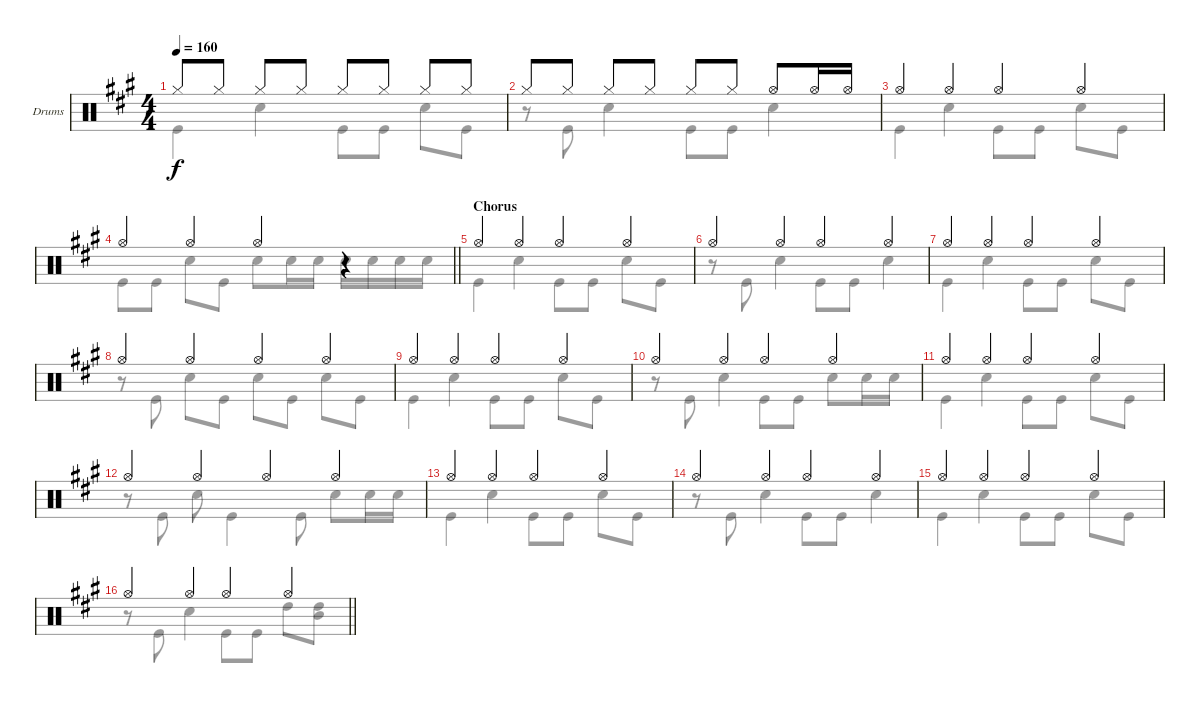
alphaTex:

\bracketExtendMode groupsimilarinstruments
\firstSystemTrackNameOrientation horizontal
\otherSystemsTrackNameOrientation horizontal
\track ("Drumkit" "Drums") {instrument percussion}
\staff {score}
\articulation defaults
\voice
\ts (4 4)
\tempo 160
\clef neutral
\ks a "Hi-Hat (closed)".8{dy f} "Hi-Hat (closed)".8 "Hi-Hat (closed)".8 "Hi-Hat (closed)".8 "Hi-Hat (closed)".8 "Hi-Hat (closed)".8 "Hi-Hat (closed)".8 "Hi-Hat (closed)".8
|
"Hi-Hat (closed)".8 "Hi-Hat (closed)".8 "Hi-Hat (closed)".8 "Hi-Hat (closed)".8 "Hi-Hat (closed)".8 "Hi-Hat (closed)".8 "Hi-Hat (open)".8 "Hi-Hat (open)".16 "Hi-Hat (open)".16 |
"Hi-Hat (open)".4 "Hi-Hat (open)".4 "Hi-Hat (open)".4 "Hi-Hat (open)".4 |
\barLineRight lightlight "Hi-Hat (open)".4 "Hi-Hat (open)".4 "Hi-Hat (open)".4
r.4 |
\section ("" "Chorus")
"Hi-Hat (open)".4 "Hi-Hat (open)".4 "Hi-Hat (open)".4 "Hi-Hat (open)".4 |
"Hi-Hat (open)".4 "Hi-Hat (open)".4 "Hi-Hat (open)".4 "Hi-Hat (open)".4 |
"Hi-Hat (open)".4 "Hi-Hat (open)".4 "Hi-Hat (open)".4 "Hi-Hat (open)".4 |
"Hi-Hat (open)".4 "Hi-Hat (open)".4 "Hi-Hat (open)".4 "Hi-Hat (open)".4 |
"Hi-Hat (open)".4 "Hi-Hat (open)".4 "Hi-Hat (open)".4 "Hi-Hat (open)".4 |
"Hi-Hat (open)".4 "Hi-Hat (open)".4 "Hi-Hat (open)".4 "Hi-Hat (open)".4 |
"Hi-Hat (open)".4 "Hi-Hat (open)".4 "Hi-Hat (open)".4 "Hi-Hat (open)".4 |
"Hi-Hat (open)".4 "Hi-Hat (open)".4 "Hi-Hat (open)".4 "Hi-Hat (open)".4 |
"Hi-Hat (open)".4 "Hi-Hat (open)".4 "Hi-Hat (open)".4 "Hi-Hat (open)".4 |
"Hi-Hat (open)".4 "Hi-Hat (open)".4 "Hi-Hat (open)".4 "Hi-Hat (open)".4 |
"Hi-Hat (open)".4 "Hi-Hat (open)".4 "Hi-Hat (open)".4 "Hi-Hat (open)".4 |
\barLineRight lightlight "Hi-Hat (open)".4 "Hi-Hat (open)".4 "Hi-Hat (open)".4 "Hi-Hat (open)".4
\voice
\clef neutral
\ottava regular
\simile none
\ks a "Kick (hit)".4{dy f} "Snare (hit) 2".4 "Kick (hit)".8 "Kick (hit)".8 "Snare (hit) 2".8 "Kick (hit)".8
|
r.8 "Kick (hit)".8 "Snare (hit) 2".4 "Kick (hit)".8 "Kick (hit)".8 "Snare (hit) 2".4 |
"Kick (hit)".4 "Snare (hit) 2".4 "Kick (hit)".8 "Kick (hit)".8 "Snare (hit) 2".8 "Kick (hit)".8 |
\barLineRight lightlight "Kick (hit)".8 "Kick (hit)".8 "Snare (hit) 2".8 "Kick (hit)".8 "Snare (hit) 2".8 "Snare (hit) 2".16 "Snare (hit) 2".16 "Snare (hit) 2".16 "Snare (hit) 2".16 "Snare (hit) 2".16 "Snare (hit) 2".16
|
"Kick (hit)".4 "Snare (hit) 2".4 "Kick (hit)".8 "Kick (hit)".8 "Snare (hit) 2".8 "Kick (hit)".8 |
r.8 "Kick (hit)".8 "Snare (hit) 2".4 "Kick (hit)".8 "Kick (hit)".8 "Snare (hit) 2".4 |
"Kick (hit)".4 "Snare (hit) 2".4 "Kick (hit)".8 "Kick (hit)".8 "Snare (hit) 2".8 "Kick (hit)".8 |
r.8 "Kick (hit)".8 "Snare (hit) 2".8 "Kick (hit)".8 "Snare (hit) 2".8 "Kick (hit)".8 "Snare (hit) 2".8 "Kick (hit)".8 |
"Kick (hit)".4 "Snare (hit) 2".4 "Kick (hit)".8 "Kick (hit)".8 "Snare (hit) 2".8 "Kick (hit)".8 |
r.8 "Kick (hit)".8 "Snare (hit) 2".4 "Kick (hit)".8 "Kick (hit)".8 "Snare (hit) 2".8 "Snare (hit) 2".16 "Snare (hit) 2".16 |
"Kick (hit)".4 "Snare (hit) 2".4 "Kick (hit)".8 "Kick (hit)".8 "Snare (hit) 2".8 "Kick (hit)".8 |
r.8 "Kick (hit)".8 "Snare (hit) 2".8 "Kick (hit)".4 "Kick (hit)".8 "Snare (hit) 2".8 "Snare (hit) 2".16 "Snare (hit) 2".16 |
"Kick (hit)".4 "Snare (hit) 2".4 "Kick (hit)".8 "Kick (hit)".8 "Snare (hit) 2".8 "Kick (hit)".8 |
r.8 "Kick (hit)".8 "Snare (hit) 2".4 "Kick (hit)".8 "Kick (hit)".8 "Snare (hit) 2".4 |
"Kick (hit)".4 "Snare (hit) 2".4 "Kick (hit)".8 "Kick (hit)".8 "Snare (hit) 2".8 "Kick (hit)".8 |
\barLineRight lightlight
r.8 "Kick (hit)".8 "Snare (hit) 2".4 "Kick (hit)".8 "Kick (hit)".8 "High Tom (hit)".8 ("High Tom (hit)" "Mid Tom (hit)").8
